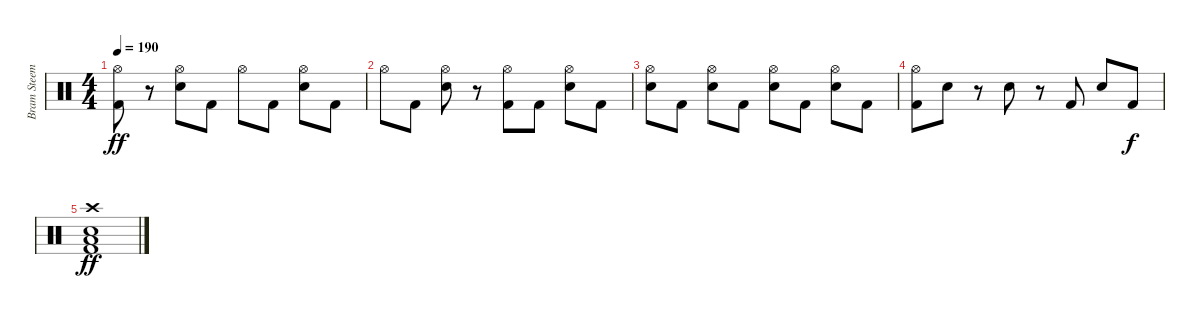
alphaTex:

\track ("Bram Steemans" "Bram Steem") {instrument percussion}
\staff {score}
\articulation defaults
\ts (4 4)
\tempo 190
\clef neutral
\ks c
("Hi-Hat (open)" "Kick (hit) 2").8{dy ff} r.8 ("Hi-Hat (open)" "Snare (hit) 2").8 "Kick (hit) 2".8 "Hi-Hat (open)".8 "Kick (hit) 2".8 ("Hi-Hat (open)" "Snare (hit) 2").8 "Kick (hit) 2".8 |
"Hi-Hat (open)".8 "Kick (hit) 2".8 ("Hi-Hat (open)" "Snare (hit) 2").8 r.8 ("Hi-Hat (open)" "Kick (hit) 2").8 "Kick (hit) 2".8 ("Hi-Hat (open)" "Snare (hit) 2").8 "Kick (hit) 2".8 |
("Hi-Hat (open)" "Snare (hit) 2").8 "Kick (hit) 2".8 ("Hi-Hat (open)" "Snare (hit) 2").8 "Kick (hit) 2".8 ("Hi-Hat (open)" "Snare (hit) 2").8 "Kick (hit) 2".8 ("Hi-Hat (open)" "Snare (hit) 2").8 "Kick (hit) 2".8 |
("Hi-Hat (open)" "Kick (hit) 2").8 "Snare (hit) 2".8 r.8 "Snare (hit) 2".8 r.8 "Kick (hit) 2".8 "Snare (hit) 2".8 "Kick (hit) 2".8{dy f} |
("Crash high (hit)" "Low Floor Tom (hit)" "Snare (hit) 2" "Kick (hit) 2").1{dy ff}
